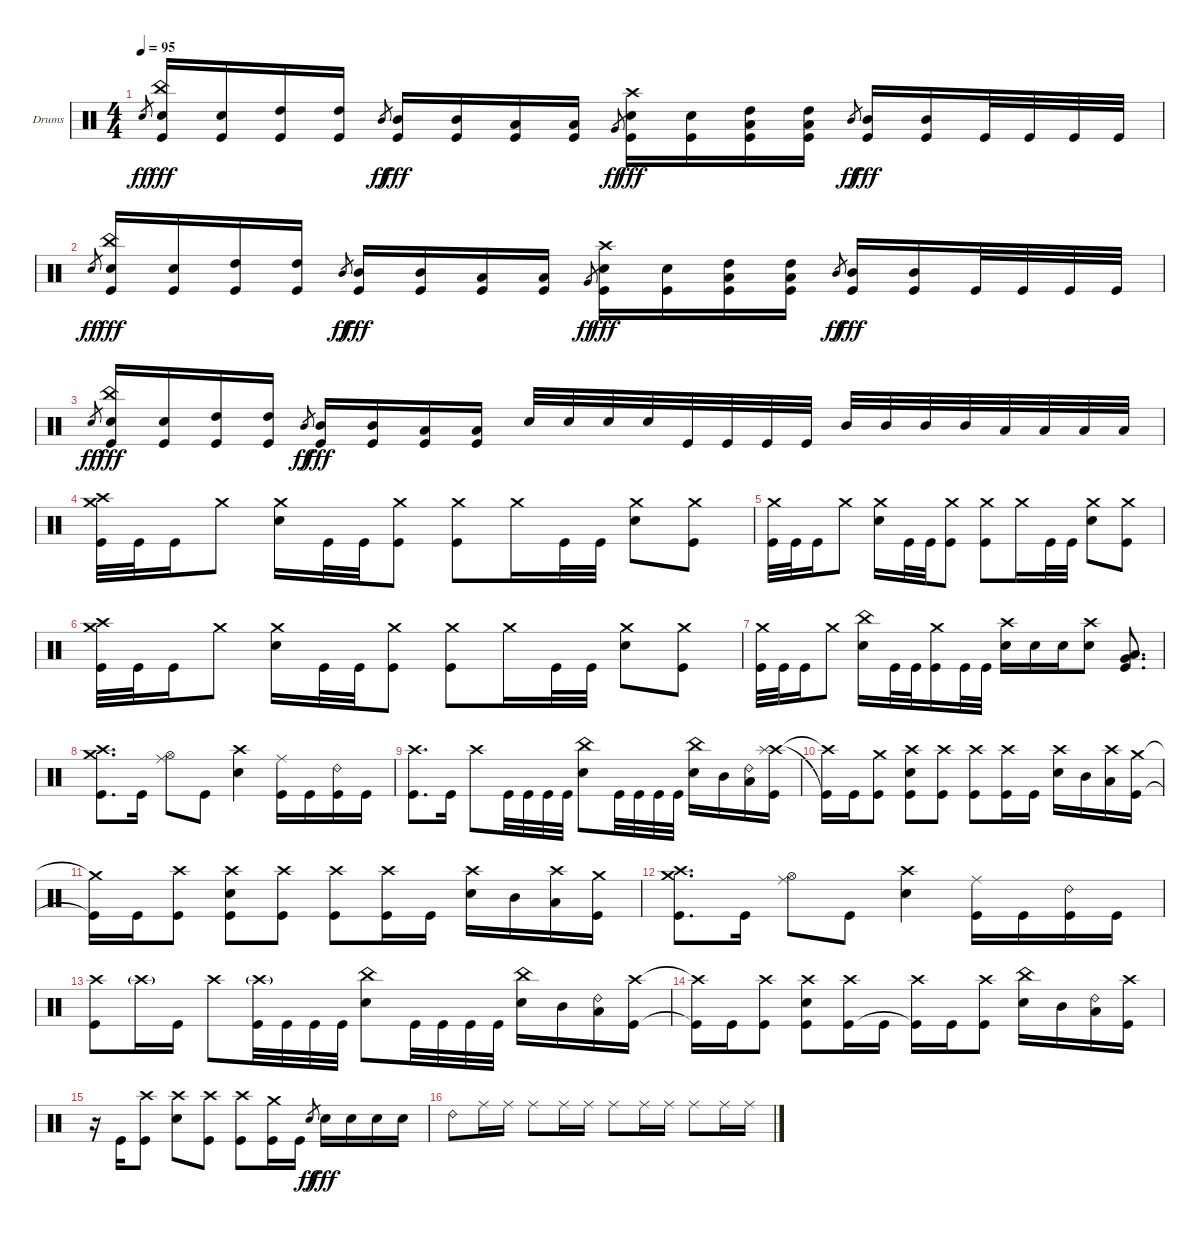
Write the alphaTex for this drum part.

\defaultSystemsLayout 4
\bracketExtendMode groupsimilarinstruments
\firstSystemTrackNameOrientation horizontal
\otherSystemsTrackNameOrientation horizontal
\track ("Drumkit" "Drums") {instrument percussion}
\staff {score}
\articulation defaults
\ts (4 4)
\tempo 95
\clef neutral
\scale
0.333333
\ks c "Snare (hit) 2".8{gr dy ff}
("China (hit)" "Snare (hit) 2" "Kick (hit)").16{dy fff} ("Snare (hit) 2" "Kick (hit)").16 ("High Tom (hit)" "Kick (hit)").16 ("High Tom (hit)" "Kick (hit)").16 "Mid Tom (hit)".8{gr dy ff} ("Mid Tom (hit)" "Kick (hit)").16{dy fff} ("Mid Tom (hit)" "Kick (hit)").16 ("Low Tom (hit)" "Kick (hit)").16 ("Low Tom (hit)" "Kick (hit)").16 "Very Low Tom (hit)".8{gr dy ff} ("Crash high (hit)" "Snare (hit) 2" "Kick (hit)").16{dy fff} ("Snare (hit) 2" "Kick (hit)").16 ("High Tom (hit)" "Low Tom (hit)" "Kick (hit)").16 ("High Tom (hit)" "Low Tom (hit)" "Kick (hit)").16 "Mid Tom (hit)".8{gr dy ff} ("Mid Tom (hit)" "Kick (hit)").16{dy fff} ("Mid Tom (hit)" "Kick (hit)").16 "Kick (hit)".32 "Kick (hit)".32 "Kick (hit)".32 "Kick (hit)".32 |
\scale
0.333333 "Snare (hit) 2".8{gr dy ff} ("China (hit)" "Snare (hit) 2" "Kick (hit)").16{dy fff} ("Snare (hit) 2" "Kick (hit)").16 ("High Tom (hit)" "Kick (hit)").16 ("High Tom (hit)" "Kick (hit)").16 "Mid Tom (hit)".8{gr dy ff} ("Mid Tom (hit)" "Kick (hit)").16{dy fff} ("Mid Tom (hit)" "Kick (hit)").16 ("Low Tom (hit)" "Kick (hit)").16 ("Low Tom (hit)" "Kick (hit)").16 "Very Low Tom (hit)".8{gr dy ff} ("Crash high (hit)" "Snare (hit) 2" "Kick (hit)").16{dy fff} ("Snare (hit) 2" "Kick (hit)").16 ("High Tom (hit)" "Low Tom (hit)" "Kick (hit)").16 ("High Tom (hit)" "Low Tom (hit)" "Kick (hit)").16 "Mid Tom (hit)".8{gr dy ff} ("Mid Tom (hit)" "Kick (hit)").16{dy fff} ("Mid Tom (hit)" "Kick (hit)").16 "Kick (hit)".32 "Kick (hit)".32 "Kick (hit)".32 "Kick (hit)".32 |
\scale
0.333333 "Snare (hit) 2".8{gr dy ff} ("China (hit)" "Snare (hit) 2" "Kick (hit)").16{dy fff} ("Snare (hit) 2" "Kick (hit)").16 ("High Tom (hit)" "Kick (hit)").16 ("High Tom (hit)" "Kick (hit)").16 "Mid Tom (hit)".8{gr dy ff} ("Mid Tom (hit)" "Kick (hit)").16{dy fff} ("Mid Tom (hit)" "Kick (hit)").16 ("Low Tom (hit)" "Kick (hit)").16 ("Low Tom (hit)" "Kick (hit)").16 "Snare (hit) 2".32 "Snare (hit) 2".32 "Snare (hit) 2".32 "Snare (hit) 2".32 "Kick (hit)".32 "Kick (hit)".32 "Kick (hit)".32 "Kick (hit)".32 "Mid Tom (hit)".32 "Mid Tom (hit)".32 "Mid Tom (hit)".32 "Mid Tom (hit)".32 "Low Tom (hit)".32 "Low Tom (hit)".32 "Low Tom (hit)".32 "Low Tom (hit)".32 |
\scale
0.333333 ("Crash high (hit)" "Crash medium (hit)" "Kick (hit)").32 "Kick (hit)".32 "Kick (hit)".16 "Crash medium (hit)".8 ("Crash medium (hit)" "Snare (hit) 2").16 "Kick (hit)".32 "Kick (hit)".32 ("Crash medium (hit)" "Kick (hit)").8 ("Crash medium (hit)" "Kick (hit)").8 "Crash medium (hit)".16 "Kick (hit)".32 "Kick (hit)".32 ("Crash medium (hit)" "Snare (hit) 2").8 ("Crash medium (hit)" "Kick (hit)").8 |
\scale
0.333333 ("Crash medium (hit)" "Kick (hit)").32 "Kick (hit)".32 "Kick (hit)".16 "Crash medium (hit)".8 ("Crash medium (hit)" "Snare (hit) 2").16 "Kick (hit)".32 "Kick (hit)".32 ("Crash medium (hit)" "Kick (hit)").8 ("Crash medium (hit)" "Kick (hit)").8 "Crash medium (hit)".16 "Kick (hit)".32 "Kick (hit)".32 ("Crash medium (hit)" "Snare (hit) 2").8 ("Crash medium (hit)" "Kick (hit)").8 |
("Crash high (hit)" "Crash medium (hit)" "Kick (hit)").32 "Kick (hit)".32 "Kick (hit)".16 "Crash medium (hit)".8 ("Crash medium (hit)" "Snare (hit) 2").16 "Kick (hit)".32 "Kick (hit)".32 ("Crash medium (hit)" "Kick (hit)").8 ("Crash medium (hit)" "Kick (hit)").8 "Crash medium (hit)".16 "Kick (hit)".32 "Kick (hit)".32 ("Crash medium (hit)" "Snare (hit) 2").8 ("Crash medium (hit)" "Kick (hit)").8 |
("Crash medium (hit)" "Kick (hit)").32 "Kick (hit)".32 "Kick (hit)".16 "Crash medium (hit)".8 ("China (hit)" "Snare (hit) 2").16 "Kick (hit)".32 "Kick (hit)".32 ("Crash medium (hit)" "Kick (hit)").16 "Kick (hit)".32 "Kick (hit)".32 ("Crash high (hit)" "Snare (hit) 2").16 "Snare (hit) 2".16 "Snare (hit) 2".16 ("Crash high (hit)" "Snare (hit) 2").8 ("Very Low Tom (hit)" "Low Tom (hit)" "Kick (hit)").8{d} |
("Crash high (hit)" "Crash medium (hit)" "Kick (hit)").8{d} "Kick (hit)".16 ("Ride (middle)" "Hi-Hat (open)").8 "Kick (hit)".8 ("Crash high (hit)" "Snare (hit) 2").4 ("Ride (middle)" "Kick (hit)").16 "Kick (hit)".16 ("Ride (bell) 2" "Kick (hit)").16 "Kick (hit)".16 |
("Crash high (hit)" "Kick (hit)").8{d} "Kick (hit)".16 "Crash high (hit)".8 "Kick (hit)".32 "Kick (hit)".32 "Kick (hit)".32 "Kick (hit)".32 ("China (hit)" "Snare (hit) 2").8 "Kick (hit)".32 "Kick (hit)".32 "Kick (hit)".32 "Kick (hit)".32 ("China (hit)" "Snare (hit) 2").16 "Mid Tom (hit)".16 ("Ride (bell) 2" "Low Tom (hit)").16 ("Crash high (hit)" "Splash (hit)" "Kick (hit)").16 |
("Crash high (hit)"{t} "Kick (hit)"{t}).16 "Kick (hit)".16 ("Crash medium (hit)" "Kick (hit)").8 ("Crash high (hit)" "Snare (hit) 2" "Kick (hit)").8 ("Crash high (hit)" "Kick (hit)").8 ("Crash high (hit)" "Kick (hit)").8 ("Crash high (hit)" "Kick (hit)").16 "Kick (hit)".16 ("Crash high (hit)" "Snare (hit) 2").16 "Mid Tom (hit)".16 ("Crash high (hit)" "Low Tom (hit)").16 ("Crash medium (hit)" "Kick (hit)").16 |
("Crash medium (hit)"{t} "Kick (hit)"{t}).16 "Kick (hit)".16 ("Crash high (hit)" "Kick (hit)").8 ("Crash high (hit)" "Snare (hit) 2" "Kick (hit)").8 ("Crash high (hit)" "Kick (hit)").8 ("Crash high (hit)" "Kick (hit)").8 ("Crash high (hit)" "Kick (hit)").16 "Kick (hit)".16 ("Crash high (hit)" "Snare (hit) 2").16 "Mid Tom (hit)".16 ("Crash high (hit)" "Low Tom (hit)").16 ("Crash medium (hit)" "Kick (hit)").16 |
("Crash medium (hit)" "Crash high (hit)" "Kick (hit)").8{d} "Kick (hit)".16 ("Ride (middle)" "Hi-Hat (open)").8 "Kick (hit)".8 ("Crash high (hit)" "Snare (hit) 2").4 ("Ride (middle)" "Kick (hit)").16 "Kick (hit)".16 ("Ride (bell) 2" "Kick (hit)").16 "Kick (hit)".16 |
("Crash high (hit)" "Kick (hit)").8 "Crash high (hit)"{g}.16 "Kick (hit)".16 "Crash high (hit)".8 ("Crash high (hit)"{g} "Kick (hit)").32 "Kick (hit)".32 "Kick (hit)".32 "Kick (hit)".32 ("China (hit)" "Snare (hit) 2").8 "Kick (hit)".32 "Kick (hit)".32 "Kick (hit)".32 "Kick (hit)".32 ("China (hit)" "Snare (hit) 2").16 "Mid Tom (hit)".16 ("Ride (bell) 2" "Low Tom (hit)").16 ("Crash high (hit)" "Kick (hit)").16 |
("Crash high (hit)"{t} "Kick (hit)"{t}).16 "Kick (hit)".16 ("Crash high (hit)" "Kick (hit)").8 ("Crash high (hit)" "Snare (hit) 2" "Kick (hit)").8 ("Crash high (hit)" "Kick (hit)").16 "Kick (hit)".16 ("Crash high (hit)" "Kick (hit)"{t}).16 "Kick (hit)".16 ("Crash high (hit)" "Kick (hit)").8 ("China (hit)" "Snare (hit) 2").16 "Mid Tom (hit)".16 ("Ride (bell) 2" "Low Tom (hit)").16 ("Crash high (hit)" "Kick (hit)").16 |
r.16 "Kick (hit)".16 ("Crash high (hit)" "Kick (hit)").8 ("Crash high (hit)" "Snare (hit) 2").8 ("Crash high (hit)" "Kick (hit)").8 ("Crash high (hit)" "Kick (hit)").8 ("Crash medium (hit)" "Kick (hit)").16 "Kick (hit)".16 "Snare (hit) 2".8{gr dy ff} "Snare (hit) 2".16{dy fff} "Snare (hit) 2".16 "Snare (hit) 2".16 "Snare (hit) 2".16 |
"Ride (bell) 2".8 "Ride (middle)".16 "Ride (middle)".16 "Ride (middle)".8 "Ride (middle)".16 "Ride (middle)".16 "Ride (middle)".8 "Ride (middle)".16 "Ride (middle)".16 "Ride (middle)".8 "Ride (middle)".16 "Ride (middle)".16
